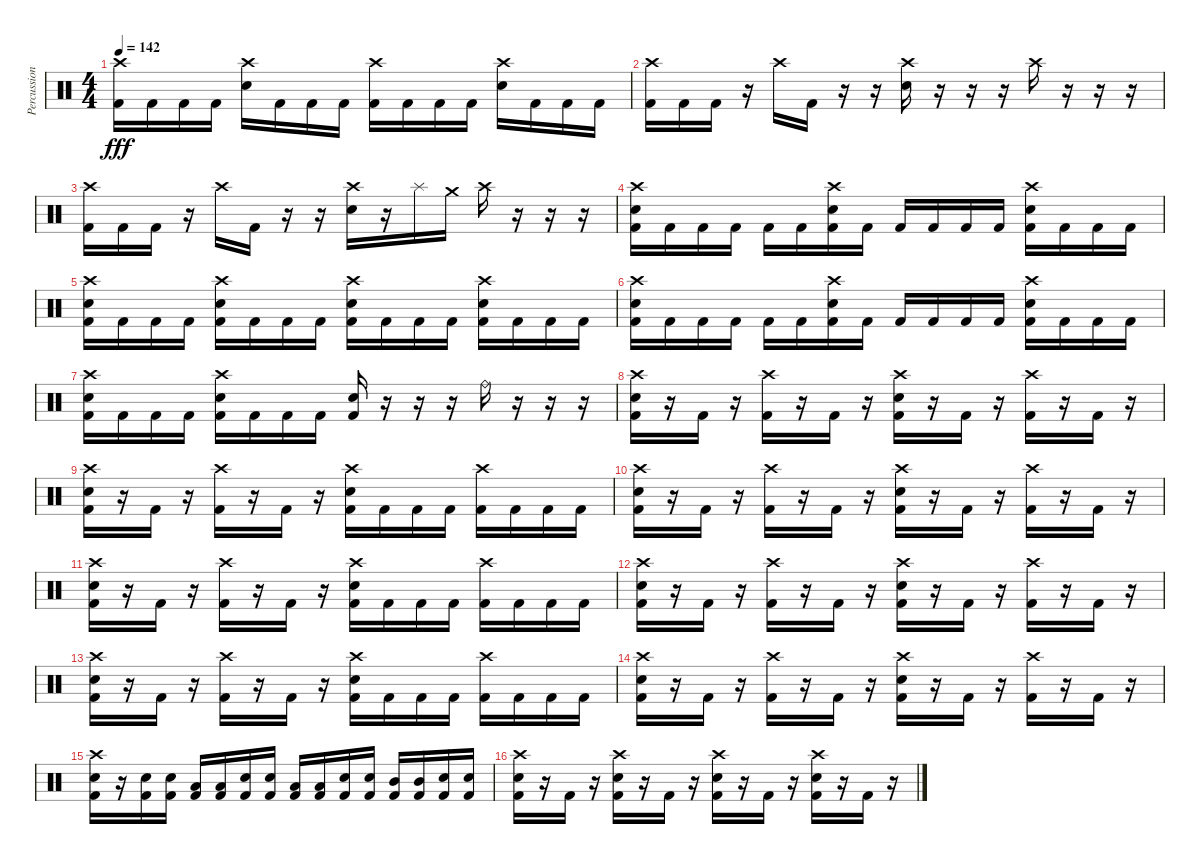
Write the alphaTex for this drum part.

\track ("Percussion" "Percussion") {instrument percussion}
\staff {score}
\articulation defaults
\ts (4 4)
\tempo 142
\clef neutral
\ks c
("Crash high (hit)" "Kick (hit) 2").16{dy fff} "Kick (hit) 2".16 "Kick (hit) 2".16 "Kick (hit) 2".16 ("Crash high (hit)" "Electric Snare (hit)").16 "Kick (hit) 2".16 "Kick (hit) 2".16 "Kick (hit) 2".16 ("Crash high (hit)" "Kick (hit) 2").16 "Kick (hit) 2".16 "Kick (hit) 2".16 "Kick (hit) 2".16 ("Crash high (hit)" "Electric Snare (hit)").16 "Kick (hit) 2".16 "Kick (hit) 2".16 "Kick (hit) 2".16 |
("Crash high (hit)" "Kick (hit) 2").16 "Kick (hit) 2".16 "Kick (hit) 2".16 r.16 "Crash high (hit)".16 "Kick (hit) 2".16 r.16 r.16 ("Crash high (hit)" "Electric Snare (hit)").16 r.16 r.16 r.16 "Crash high (hit)".16 r.16 r.16 r.16 |
("Crash high (hit)" "Kick (hit) 2").16 "Kick (hit) 2".16 "Kick (hit) 2".16 r.16 "Crash high (hit)".16 "Kick (hit) 2".16 r.16 r.16 ("Crash high (hit)" "Electric Snare (hit)").16 r.16 "Splash (hit)".16 "Crash medium (hit)".16 "Crash high (hit)".16 r.16 r.16 r.16 |
("Crash high (hit)" "Electric Snare (hit)" "Kick (hit) 2").16 "Kick (hit) 2".16 "Kick (hit) 2".16 "Kick (hit) 2".16 "Kick (hit) 2".16 "Kick (hit) 2".16 ("Crash high (hit)" "Electric Snare (hit)" "Kick (hit) 2").16 "Kick (hit) 2".16 "Kick (hit) 2".16 "Kick (hit) 2".16 "Kick (hit) 2".16 "Kick (hit) 2".16 ("Crash high (hit)" "Electric Snare (hit)" "Kick (hit) 2").16 "Kick (hit) 2".16 "Kick (hit) 2".16 "Kick (hit) 2".16 |
("Crash high (hit)" "Electric Snare (hit)" "Kick (hit) 2").16 "Kick (hit) 2".16 "Kick (hit) 2".16 "Kick (hit) 2".16 ("Crash high (hit)" "Electric Snare (hit)" "Kick (hit) 2").16 "Kick (hit) 2".16 "Kick (hit) 2".16 "Kick (hit) 2".16 ("Crash high (hit)" "Electric Snare (hit)" "Kick (hit) 2").16 "Kick (hit) 2".16 "Kick (hit) 2".16 "Kick (hit) 2".16 ("Crash high (hit)" "Electric Snare (hit)" "Kick (hit) 2").16 "Kick (hit) 2".16 "Kick (hit) 2".16 "Kick (hit) 2".16 |
("Crash high (hit)" "Electric Snare (hit)" "Kick (hit) 2").16 "Kick (hit) 2".16 "Kick (hit) 2".16 "Kick (hit) 2".16 "Kick (hit) 2".16 "Kick (hit) 2".16 ("Crash high (hit)" "Electric Snare (hit)" "Kick (hit) 2").16 "Kick (hit) 2".16 "Kick (hit) 2".16 "Kick (hit) 2".16 "Kick (hit) 2".16 "Kick (hit) 2".16 ("Crash high (hit)" "Electric Snare (hit)" "Kick (hit) 2").16 "Kick (hit) 2".16 "Kick (hit) 2".16 "Kick (hit) 2".16 |
("Crash high (hit)" "Electric Snare (hit)" "Kick (hit) 2").16 "Kick (hit) 2".16 "Kick (hit) 2".16 "Kick (hit) 2".16 ("Crash high (hit)" "Electric Snare (hit)" "Kick (hit) 2").16 "Kick (hit) 2".16 "Kick (hit) 2".16 "Kick (hit) 2".16 ("Electric Snare (hit)" "Kick (hit) 2").16 r.16 r.16 r.16 "Ride (bell)".16 r.16 r.16 r.16 |
("Crash high (hit)" "Electric Snare (hit)" "Kick (hit) 2").16 r.16 "Kick (hit) 2".16 r.16 ("Crash high (hit)" "Kick (hit) 2").16 r.16 "Kick (hit) 2".16 r.16 ("Crash high (hit)" "Electric Snare (hit)" "Kick (hit) 2").16 r.16 "Kick (hit) 2".16 r.16 ("Crash high (hit)" "Kick (hit) 2").16 r.16 "Kick (hit) 2".16 r.16 |
("Crash high (hit)" "Electric Snare (hit)" "Kick (hit) 2").16 r.16 "Kick (hit) 2".16 r.16 ("Crash high (hit)" "Kick (hit) 2").16 r.16 "Kick (hit) 2".16 r.16 ("Crash high (hit)" "Electric Snare (hit)" "Kick (hit) 2").16 "Kick (hit) 2".16 "Kick (hit) 2".16 "Kick (hit) 2".16 ("Crash high (hit)" "Kick (hit) 2").16 "Kick (hit) 2".16 "Kick (hit) 2".16 "Kick (hit) 2".16 |
("Crash high (hit)" "Electric Snare (hit)" "Kick (hit) 2").16 r.16 "Kick (hit) 2".16 r.16 ("Crash high (hit)" "Kick (hit) 2").16 r.16 "Kick (hit) 2".16 r.16 ("Crash high (hit)" "Electric Snare (hit)" "Kick (hit) 2").16 r.16 "Kick (hit) 2".16 r.16 ("Crash high (hit)" "Kick (hit) 2").16 r.16 "Kick (hit) 2".16 r.16 |
("Crash high (hit)" "Electric Snare (hit)" "Kick (hit) 2").16 r.16 "Kick (hit) 2".16 r.16 ("Crash high (hit)" "Kick (hit) 2").16 r.16 "Kick (hit) 2".16 r.16 ("Crash high (hit)" "Electric Snare (hit)" "Kick (hit) 2").16 "Kick (hit) 2".16 "Kick (hit) 2".16 "Kick (hit) 2".16 ("Crash high (hit)" "Kick (hit) 2").16 "Kick (hit) 2".16 "Kick (hit) 2".16 "Kick (hit) 2".16 |
("Crash high (hit)" "Electric Snare (hit)" "Kick (hit) 2").16 r.16 "Kick (hit) 2".16 r.16 ("Crash high (hit)" "Kick (hit) 2").16 r.16 "Kick (hit) 2".16 r.16 ("Crash high (hit)" "Electric Snare (hit)" "Kick (hit) 2").16 r.16 "Kick (hit) 2".16 r.16 ("Crash high (hit)" "Kick (hit) 2").16 r.16 "Kick (hit) 2".16 r.16 |
("Crash high (hit)" "Electric Snare (hit)" "Kick (hit) 2").16 r.16 "Kick (hit) 2".16 r.16 ("Crash high (hit)" "Kick (hit) 2").16 r.16 "Kick (hit) 2".16 r.16 ("Crash high (hit)" "Electric Snare (hit)" "Kick (hit) 2").16 "Kick (hit) 2".16 "Kick (hit) 2".16 "Kick (hit) 2".16 ("Crash high (hit)" "Kick (hit) 2").16 "Kick (hit) 2".16 "Kick (hit) 2".16 "Kick (hit) 2".16 |
("Crash high (hit)" "Electric Snare (hit)" "Kick (hit) 2").16 r.16 "Kick (hit) 2".16 r.16 ("Crash high (hit)" "Kick (hit) 2").16 r.16 "Kick (hit) 2".16 r.16 ("Crash high (hit)" "Electric Snare (hit)" "Kick (hit) 2").16 r.16 "Kick (hit) 2".16 r.16 ("Crash high (hit)" "Kick (hit) 2").16 r.16 "Kick (hit) 2".16 r.16 |
("Crash high (hit)" "Electric Snare (hit)" "Kick (hit) 2").16 r.16 ("Electric Snare (hit)" "Kick (hit) 2").16 ("Electric Snare (hit)" "Kick (hit) 2").16 ("Low Floor Tom (hit)" "Kick (hit) 2").16 ("Low Floor Tom (hit)" "Kick (hit) 2").16 ("Electric Snare (hit)" "Kick (hit) 2").16 ("Electric Snare (hit)" "Kick (hit) 2").16 ("Low Tom (hit)" "Kick (hit) 2").16 ("Low Tom (hit)" "Kick (hit) 2").16 ("Electric Snare (hit)" "Kick (hit) 2").16 ("Electric Snare (hit)" "Kick (hit) 2").16 ("Mid Tom (hit)" "Kick (hit) 2").16 ("Mid Tom (hit)" "Kick (hit) 2").16 ("Electric Snare (hit)" "Kick (hit) 2").16 ("Electric Snare (hit)" "Kick (hit) 2").16 |
("Crash high (hit)" "Electric Snare (hit)" "Kick (hit) 2").16 r.16 "Kick (hit) 2".16 r.16 ("Crash high (hit)" "Electric Snare (hit)" "Kick (hit) 2").16 r.16 "Kick (hit) 2".16 r.16 ("Crash high (hit)" "Electric Snare (hit)" "Kick (hit) 2").16 r.16 "Kick (hit) 2".16 r.16 ("Crash high (hit)" "Electric Snare (hit)" "Kick (hit) 2").16 r.16 "Kick (hit) 2".16 r.16
